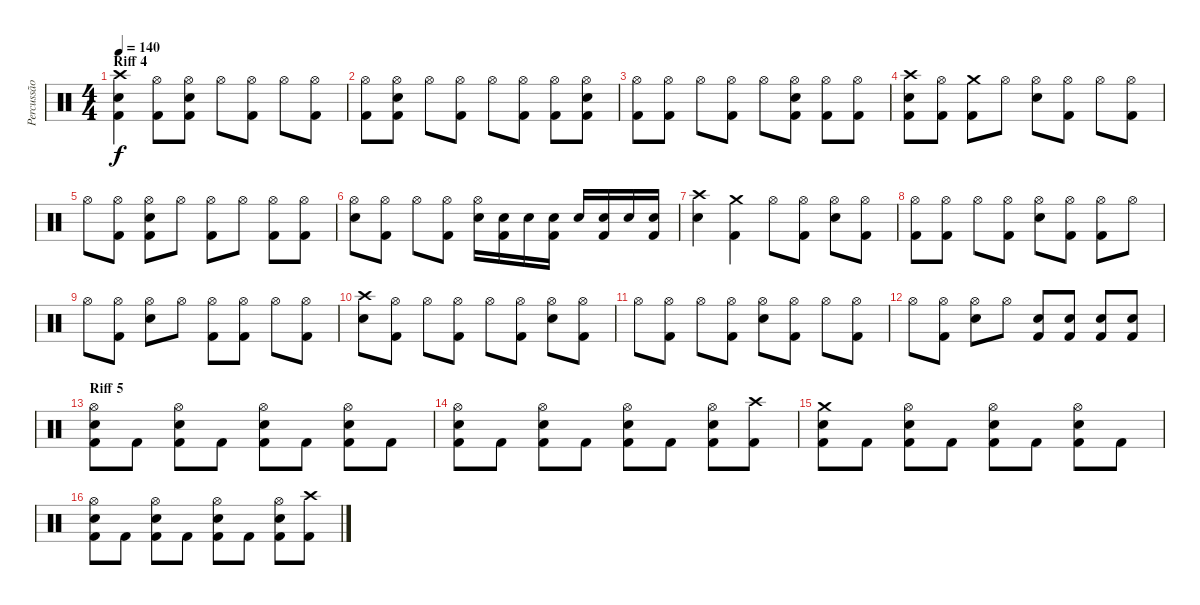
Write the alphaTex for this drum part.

\track ("Percussão" "Percussão") {instrument percussion}
\staff {score}
\articulation defaults
\ts (4 4)
\section ("" "Riff 4")
\tempo 140
\clef neutral
\ks c
("Crash high (hit)" "Snare (hit) 2" "Kick (hit) 2").4{dy f} ("Hi-Hat (open)" "Kick (hit) 2").8 ("Hi-Hat (open)" "Snare (hit) 2" "Kick (hit) 2").8 "Hi-Hat (open)".8 ("Hi-Hat (open)" "Kick (hit) 2").8 "Hi-Hat (open)".8 ("Hi-Hat (open)" "Kick (hit) 2").8 |
("Hi-Hat (open)" "Kick (hit) 2").8 ("Hi-Hat (open)" "Snare (hit) 2" "Kick (hit) 2").8 "Hi-Hat (open)".8 ("Hi-Hat (open)" "Kick (hit) 2").8 "Hi-Hat (open)".8 ("Hi-Hat (open)" "Kick (hit) 2").8 ("Hi-Hat (open)" "Kick (hit) 2").8 ("Hi-Hat (open)" "Snare (hit) 2" "Kick (hit) 2").8 |
("Hi-Hat (open)" "Kick (hit) 2").8 ("Hi-Hat (open)" "Kick (hit) 2").8 "Hi-Hat (open)".8 ("Hi-Hat (open)" "Kick (hit) 2").8 "Hi-Hat (open)".8 ("Hi-Hat (open)" "Snare (hit) 2" "Kick (hit) 2").8 ("Hi-Hat (open)" "Kick (hit) 2").8 ("Hi-Hat (open)" "Kick (hit) 2").8 |
("Crash high (hit)" "Snare (hit) 2" "Kick (hit) 2").8 ("Hi-Hat (open)" "Kick (hit) 2").8 ("Crash medium (hit)" "Kick (hit) 2").8 "Hi-Hat (open)".8 ("Hi-Hat (open)" "Snare (hit) 2").8 ("Hi-Hat (open)" "Kick (hit) 2").8 "Hi-Hat (open)".8 ("Hi-Hat (open)" "Kick (hit) 2").8 |
"Hi-Hat (open)".8 ("Hi-Hat (open)" "Kick (hit) 2").8 ("Hi-Hat (open)" "Snare (hit) 2" "Kick (hit) 2").8 "Hi-Hat (open)".8 ("Hi-Hat (open)" "Kick (hit) 2").8 "Hi-Hat (open)".8 ("Hi-Hat (open)" "Kick (hit) 2").8 ("Hi-Hat (open)" "Kick (hit) 2").8 |
("Hi-Hat (open)" "Snare (hit) 2").8 ("Hi-Hat (open)" "Kick (hit) 2").8 "Hi-Hat (open)".8 ("Hi-Hat (open)" "Kick (hit) 2").8 ("Hi-Hat (open)" "Electric Snare (hit)").16 ("Electric Snare (hit)" "Kick (hit) 2").16 "Electric Snare (hit)".16 ("Electric Snare (hit)" "Kick (hit) 2").16 "Snare (hit) 2".16 ("Snare (hit) 2" "Kick (hit) 2").16 "Snare (hit) 2".16 ("Snare (hit) 2" "Kick (hit) 2").16 |
("Crash high (hit)" "Snare (hit) 2").4 ("Crash medium (hit)" "Kick (hit) 2").4 "Hi-Hat (open)".8 ("Hi-Hat (open)" "Kick (hit) 2").8 ("Hi-Hat (open)" "Snare (hit) 2").8 ("Hi-Hat (open)" "Kick (hit) 2").8 |
("Hi-Hat (open)" "Kick (hit) 2").8 ("Hi-Hat (open)" "Kick (hit) 2").8 "Hi-Hat (open)".8 ("Hi-Hat (open)" "Kick (hit) 2").8 ("Hi-Hat (open)" "Snare (hit) 2").8 ("Hi-Hat (open)" "Kick (hit) 2").8 ("Hi-Hat (open)" "Kick (hit) 2").8 "Hi-Hat (open)".8 |
"Hi-Hat (open)".8 ("Hi-Hat (open)" "Kick (hit) 2").8 ("Hi-Hat (open)" "Snare (hit) 2").8 "Hi-Hat (open)".8 ("Hi-Hat (open)" "Kick (hit) 2").8 ("Hi-Hat (open)" "Kick (hit) 2").8 "Hi-Hat (open)".8 ("Hi-Hat (open)" "Kick (hit) 2").8 |
("Crash high (hit)" "Snare (hit) 2").8 ("Hi-Hat (open)" "Kick (hit) 2").8 "Hi-Hat (open)".8 ("Hi-Hat (open)" "Kick (hit) 2").8 "Hi-Hat (open)".8 ("Hi-Hat (open)" "Kick (hit) 2").8 ("Hi-Hat (open)" "Snare (hit) 2").8 ("Hi-Hat (open)" "Kick (hit) 2").8 |
"Hi-Hat (open)".8 ("Hi-Hat (open)" "Kick (hit) 2").8 "Hi-Hat (open)".8 ("Hi-Hat (open)" "Kick (hit) 2").8 ("Hi-Hat (open)" "Snare (hit) 2").8 ("Hi-Hat (open)" "Kick (hit) 2").8 "Hi-Hat (open)".8 ("Hi-Hat (open)" "Kick (hit) 2").8 |
"Hi-Hat (open)".8 ("Hi-Hat (open)" "Kick (hit) 2").8 ("Hi-Hat (open)" "Snare (hit) 2").8 "Hi-Hat (open)".8 ("Snare (hit) 2" "Kick (hit) 2").8 ("Snare (hit) 2" "Kick (hit) 2").8 ("Snare (hit) 2" "Kick (hit) 2").8 ("Snare (hit) 2" "Kick (hit) 2").8 |
\section ("" "Riff 5")
("Hi-Hat (open)" "Snare (hit) 2" "Kick (hit) 2").8 "Kick (hit) 2".8 ("Hi-Hat (open)" "Snare (hit) 2" "Kick (hit) 2").8 "Kick (hit) 2".8 ("Hi-Hat (open)" "Snare (hit) 2" "Kick (hit) 2").8 "Kick (hit) 2".8 ("Hi-Hat (open)" "Snare (hit) 2" "Kick (hit) 2").8 "Kick (hit) 2".8 |
("Hi-Hat (open)" "Snare (hit) 2" "Kick (hit) 2").8 "Kick (hit) 2".8 ("Hi-Hat (open)" "Snare (hit) 2" "Kick (hit) 2").8 "Kick (hit) 2".8 ("Hi-Hat (open)" "Snare (hit) 2" "Kick (hit) 2").8 "Kick (hit) 2".8 ("Hi-Hat (open)" "Snare (hit) 2" "Kick (hit) 2").8 ("Crash high (hit)" "Kick (hit) 2").8 |
("Crash medium (hit)" "Snare (hit) 2" "Kick (hit) 2").8 "Kick (hit) 2".8 ("Hi-Hat (open)" "Snare (hit) 2" "Kick (hit) 2").8 "Kick (hit) 2".8 ("Hi-Hat (open)" "Snare (hit) 2" "Kick (hit) 2").8 "Kick (hit) 2".8 ("Hi-Hat (open)" "Snare (hit) 2" "Kick (hit) 2").8 "Kick (hit) 2".8 |
("Hi-Hat (open)" "Snare (hit) 2" "Kick (hit) 2").8 "Kick (hit) 2".8 ("Hi-Hat (open)" "Snare (hit) 2" "Kick (hit) 2").8 "Kick (hit) 2".8 ("Hi-Hat (open)" "Snare (hit) 2" "Kick (hit) 2").8 "Kick (hit) 2".8 ("Hi-Hat (open)" "Snare (hit) 2" "Kick (hit) 2").8 ("Crash high (hit)" "Kick (hit) 2").8
